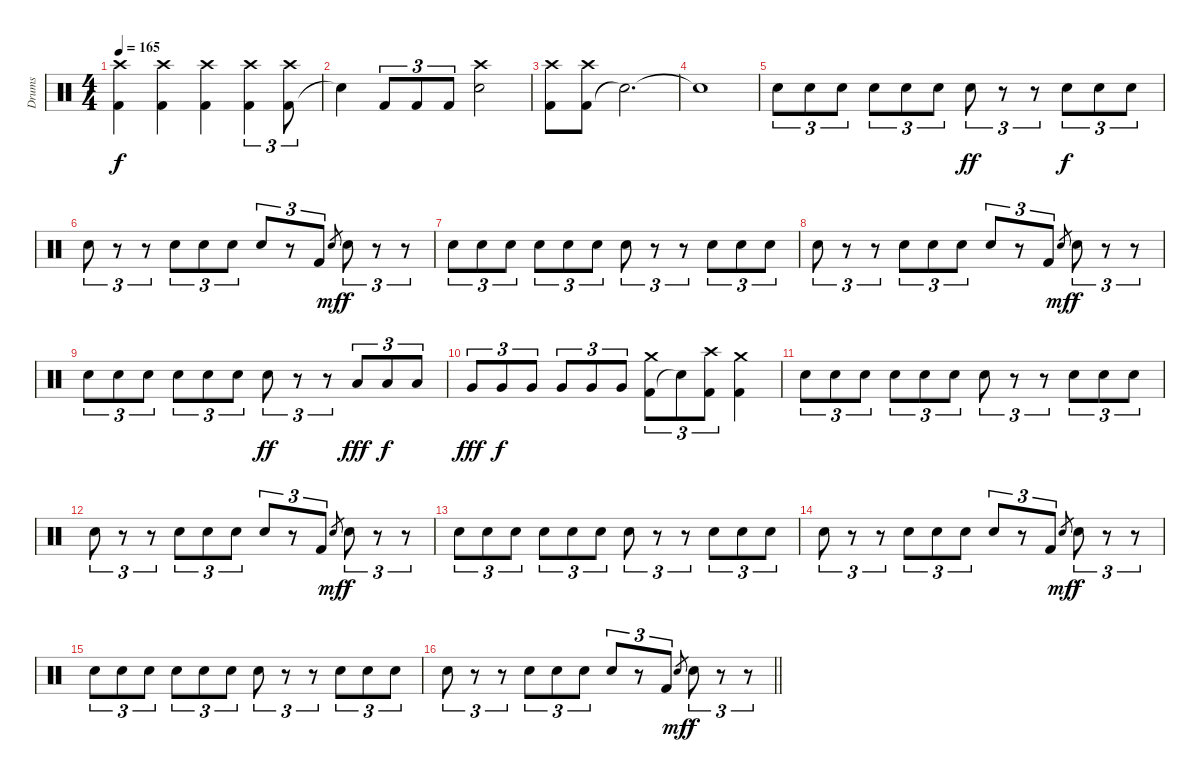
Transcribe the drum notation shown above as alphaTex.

\track ("Drums" "Drums") {instrument percussion}
\staff {score}
\articulation defaults
\ts (4 4)
\tempo 165
\clef neutral
\ks c
("Kick (hit) 2" "Crash high (hit)").4{dy f} ("Kick (hit) 2" "Crash high (hit)").4 ("Kick (hit) 2" "Crash high (hit)").4 ("Kick (hit) 2" "Crash high (hit)").4{tu (3 2)} ("Kick (hit) 2" "Crash high (hit)").8{tu (3 2)} |
"Snare (hit)"{t}.4 "Kick (hit) 2".8{tu (3 2)} "Kick (hit) 2".8{tu (3 2)} "Kick (hit) 2".8{tu (3 2)} ("Snare (hit) 2" "Crash high (hit)").2 |
("Kick (hit) 2" "Crash high (hit)").8 ("Kick (hit) 2" "Crash high (hit)").8 "Snare (hit)"{t}.2{d} |
"Snare (hit)"{t}.1 |
"Snare (hit) 2".8{tu (3 2)} "Snare (hit) 2".8{tu (3 2)} "Snare (hit) 2".8{tu (3 2)} "Snare (hit) 2".8{tu (3 2)} "Snare (hit) 2".8{tu (3 2)} "Snare (hit) 2".8{tu (3 2)} "Snare (hit) 2".8{tu (3 2) dy ff} r.8{tu (3 2)} r.8{tu (3 2)} "Snare (hit) 2".8{tu (3 2) dy f} "Snare (hit) 2".8{tu (3 2)} "Snare (hit) 2".8{tu (3 2)} |
"Snare (hit) 2".8{tu (3 2)} r.8{tu (3 2)} r.8{tu (3 2)} "Snare (hit) 2".8{tu (3 2)} "Snare (hit) 2".8{tu (3 2)} "Snare (hit) 2".8{tu (3 2)} "Snare (hit) 2".8{tu (3 2)} r.8{tu (3 2)} "Kick (hit) 2".8{tu (3 2)} "Snare (hit) 2".8{gr dy mf} "Snare (hit) 2".8{tu (3 2) dy f} r.8{tu (3 2)} r.8{tu (3 2)} |
"Snare (hit) 2".8{tu (3 2)} "Snare (hit) 2".8{tu (3 2)} "Snare (hit) 2".8{tu (3 2)} "Snare (hit) 2".8{tu (3 2)} "Snare (hit) 2".8{tu (3 2)} "Snare (hit) 2".8{tu (3 2)} "Snare (hit) 2".8{tu (3 2)} r.8{tu (3 2)} r.8{tu (3 2)} "Snare (hit) 2".8{tu (3 2)} "Snare (hit) 2".8{tu (3 2)} "Snare (hit) 2".8{tu (3 2)} |
"Snare (hit) 2".8{tu (3 2)} r.8{tu (3 2)} r.8{tu (3 2)} "Snare (hit) 2".8{tu (3 2)} "Snare (hit) 2".8{tu (3 2)} "Snare (hit) 2".8{tu (3 2)} "Snare (hit) 2".8{tu (3 2)} r.8{tu (3 2)} "Kick (hit) 2".8{tu (3 2)} "Snare (hit) 2".8{gr dy mf} "Snare (hit) 2".8{tu (3 2) dy f} r.8{tu (3 2)} r.8{tu (3 2)} |
"Snare (hit) 2".8{tu (3 2)} "Snare (hit) 2".8{tu (3 2)} "Snare (hit) 2".8{tu (3 2)} "Snare (hit) 2".8{tu (3 2)} "Snare (hit) 2".8{tu (3 2)} "Snare (hit) 2".8{tu (3 2)} "Snare (hit) 2".8{tu (3 2) dy ff} r.8{tu (3 2)} r.8{tu (3 2)} "Low Tom (hit)".8{tu (3 2) dy fff} "Low Tom (hit)".8{tu (3 2) dy f} "Low Tom (hit)".8{tu (3 2)} |
"Very Low Tom (hit)".8{tu (3 2) dy fff} "Very Low Tom (hit)".8{tu (3 2) dy f} "Very Low Tom (hit)".8{tu (3 2)} "Very Low Tom (hit)".8{tu (3 2)} "Very Low Tom (hit)".8{tu (3 2)} "Very Low Tom (hit)".8{tu (3 2)} ("Kick (hit) 2" "Crash medium (hit)").8{tu (3 2)} "Snare (hit)"{t}.8{tu (3 2)} ("Kick (hit) 2" "Crash high (hit)").8{tu (3 2)} ("Kick (hit) 2" "Crash medium (hit)").4 |
"Snare (hit) 2".8{tu (3 2)} "Snare (hit) 2".8{tu (3 2)} "Snare (hit) 2".8{tu (3 2)} "Snare (hit) 2".8{tu (3 2)} "Snare (hit) 2".8{tu (3 2)} "Snare (hit) 2".8{tu (3 2)} "Snare (hit) 2".8{tu (3 2)} r.8{tu (3 2)} r.8{tu (3 2)} "Snare (hit) 2".8{tu (3 2)} "Snare (hit) 2".8{tu (3 2)} "Snare (hit) 2".8{tu (3 2)} |
"Snare (hit) 2".8{tu (3 2)} r.8{tu (3 2)} r.8{tu (3 2)} "Snare (hit) 2".8{tu (3 2)} "Snare (hit) 2".8{tu (3 2)} "Snare (hit) 2".8{tu (3 2)} "Snare (hit) 2".8{tu (3 2)} r.8{tu (3 2)} "Kick (hit) 2".8{tu (3 2)} "Snare (hit) 2".8{gr dy mf} "Snare (hit) 2".8{tu (3 2) dy f} r.8{tu (3 2)} r.8{tu (3 2)} |
"Snare (hit) 2".8{tu (3 2)} "Snare (hit) 2".8{tu (3 2)} "Snare (hit) 2".8{tu (3 2)} "Snare (hit) 2".8{tu (3 2)} "Snare (hit) 2".8{tu (3 2)} "Snare (hit) 2".8{tu (3 2)} "Snare (hit) 2".8{tu (3 2)} r.8{tu (3 2)} r.8{tu (3 2)} "Snare (hit) 2".8{tu (3 2)} "Snare (hit) 2".8{tu (3 2)} "Snare (hit) 2".8{tu (3 2)} |
"Snare (hit) 2".8{tu (3 2)} r.8{tu (3 2)} r.8{tu (3 2)} "Snare (hit) 2".8{tu (3 2)} "Snare (hit) 2".8{tu (3 2)} "Snare (hit) 2".8{tu (3 2)} "Snare (hit) 2".8{tu (3 2)} r.8{tu (3 2)} "Kick (hit) 2".8{tu (3 2)} "Snare (hit) 2".8{gr dy mf} "Snare (hit) 2".8{tu (3 2) dy f} r.8{tu (3 2)} r.8{tu (3 2)} |
"Snare (hit) 2".8{tu (3 2)} "Snare (hit) 2".8{tu (3 2)} "Snare (hit) 2".8{tu (3 2)} "Snare (hit) 2".8{tu (3 2)} "Snare (hit) 2".8{tu (3 2)} "Snare (hit) 2".8{tu (3 2)} "Snare (hit) 2".8{tu (3 2)} r.8{tu (3 2)} r.8{tu (3 2)} "Snare (hit) 2".8{tu (3 2)} "Snare (hit) 2".8{tu (3 2)} "Snare (hit) 2".8{tu (3 2)} |
\barLineRight lightlight "Snare (hit) 2".8{tu (3 2)}
r.8{tu (3 2)} r.8{tu (3 2)} "Snare (hit) 2".8{tu (3 2)} "Snare (hit) 2".8{tu (3 2)} "Snare (hit) 2".8{tu (3 2)} "Snare (hit) 2".8{tu (3 2)} r.8{tu (3 2)} "Kick (hit) 2".8{tu (3 2)} "Snare (hit) 2".8{gr dy mf} "Snare (hit) 2".8{tu (3 2) dy f} r.8{tu (3 2)} r.8{tu (3 2)}
